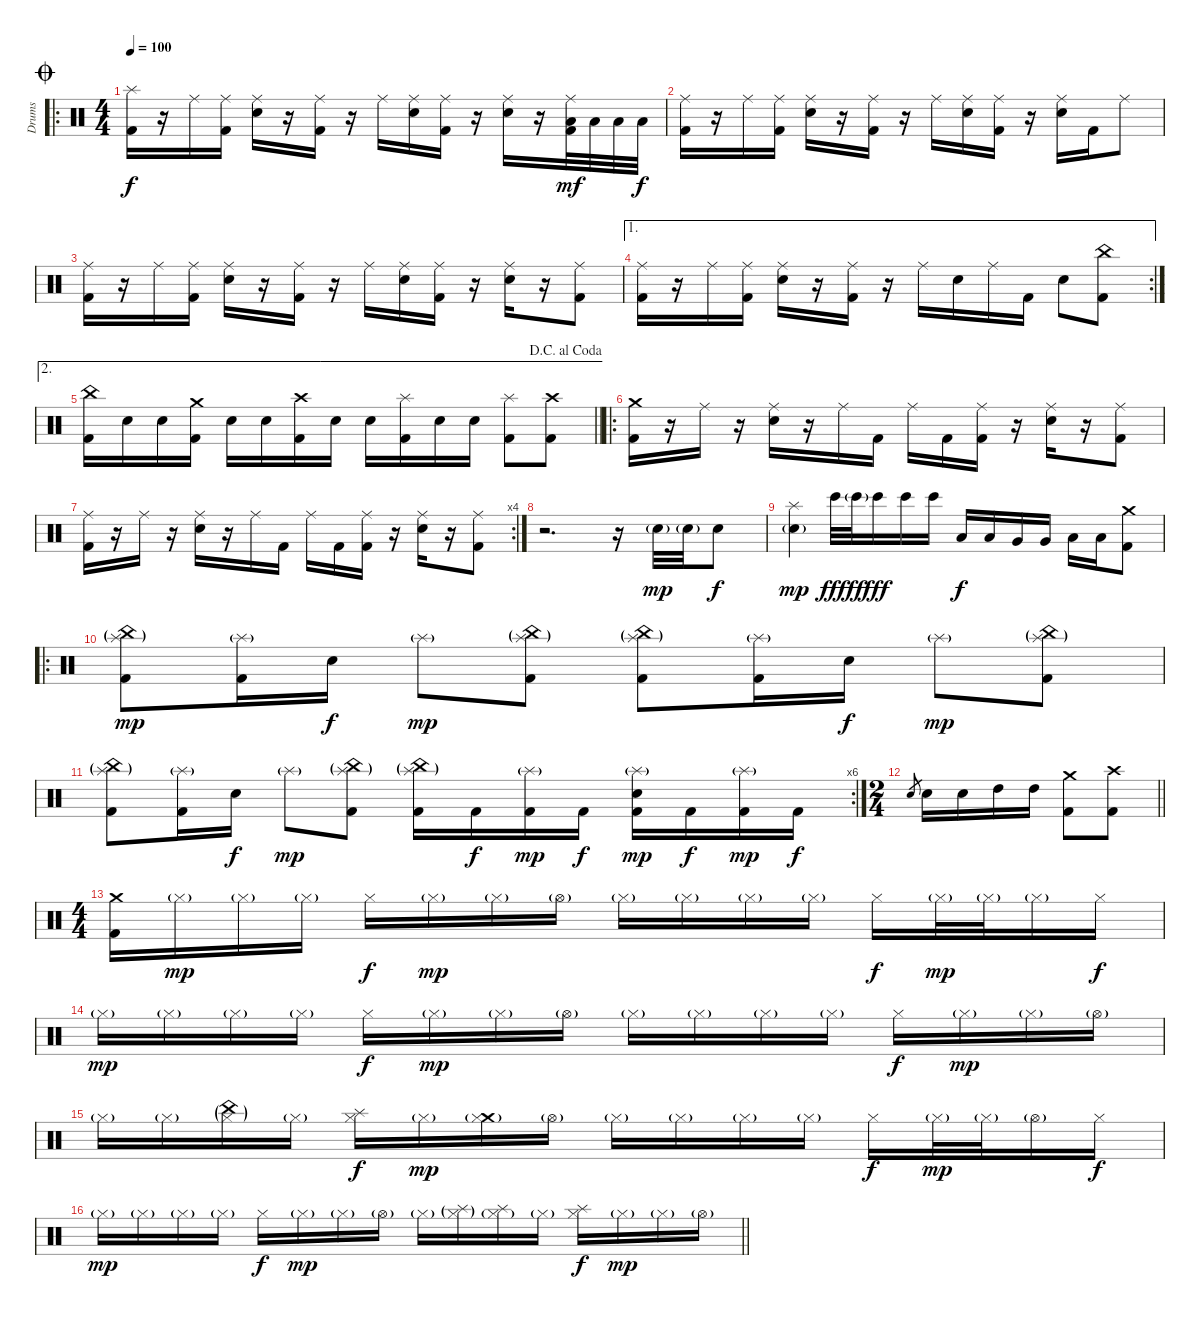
\track ("Drums" "Drums") {instrument percussion}
\staff {score}
\articulation defaults
\ro
\ts (4 4)
\jump coda
\tempo 100
\clef neutral
\ks c
("Splash (hit)" "Kick (hit) 2").16{dy f} r.16 "Ride (middle)".16 ("Ride (middle)" "Kick (hit) 2").16 ("Ride (middle)" "Electric Snare (hit)").16 r.16 ("Ride (middle)" "Kick (hit) 2").16 r.16 "Ride (middle)".16 ("Ride (middle)" "Electric Snare (hit)").16 ("Ride (middle)" "Kick (hit) 2").16 r.16 ("Ride (middle)" "Electric Snare (hit)").16 r.16 ("Ride (middle)" "Low Floor Tom (hit)" "Kick (hit) 2").32{dy mf} "Low Floor Tom (hit)".32 "Low Floor Tom (hit)".32 "Low Floor Tom (hit)".32{dy f} |
("Ride (middle)" "Kick (hit) 2").16 r.16 "Ride (middle)".16 ("Ride (middle)" "Kick (hit) 2").16 ("Ride (middle)" "Electric Snare (hit)").16 r.16 ("Ride (middle)" "Kick (hit) 2").16 r.16 "Ride (middle)".16 ("Ride (middle)" "Electric Snare (hit)").16 ("Ride (middle)" "Kick (hit) 2").16 r.16 ("Ride (middle)" "Electric Snare (hit)").16 "Kick (hit) 2".16 "Ride (middle)".8 |
("Ride (middle)" "Kick (hit) 2").16 r.16 "Ride (middle)".16 ("Ride (middle)" "Kick (hit) 2").16 ("Ride (middle)" "Electric Snare (hit)").16 r.16 ("Ride (middle)" "Kick (hit) 2").16 r.16 "Ride (middle)".16 ("Ride (middle)" "Electric Snare (hit)").16 ("Ride (middle)" "Kick (hit) 2").16 r.16 ("Ride (middle)" "Electric Snare (hit)").16 r.16 ("Ride (middle)" "Kick (hit) 2").8 |
\ae 1
\rc 2
("Ride (middle)" "Kick (hit) 2").16 r.16 "Ride (middle)".16 ("Ride (middle)" "Kick (hit) 2").16 ("Ride (middle)" "Electric Snare (hit)").16 r.16 ("Ride (middle)" "Kick (hit) 2").16 r.16 "Ride (middle)".16 "Electric Snare (hit)".16 "Ride (middle)".16 "Kick (hit) 2".16 "Electric Snare (hit)".8 ("China (hit)" "Kick (hit) 2").8 |
\ae 2
\jump dacapoalcoda
\barLineRight lightlight
("China (hit)" "Kick (hit) 2").16 "Electric Snare (hit)".16 "Electric Snare (hit)".16 ("Crash medium (hit)" "Kick (hit) 2").16 "Electric Snare (hit)".16 "Electric Snare (hit)".16 ("Crash high (hit)" "Kick (hit) 2").16 "Electric Snare (hit)".16 "Electric Snare (hit)".16 ("Splash (hit)" "Kick (hit) 2").16 "Electric Snare (hit)".16 "Electric Snare (hit)".16 ("Splash (hit)" "Kick (hit) 2").8 ("Crash high (hit)" "Kick (hit) 2").8 |
\ro
("Crash medium (hit)" "Kick (hit) 2").16 r.16 "Ride (middle)".16 r.16 ("Ride (middle)" "Electric Snare (hit)").16 r.16 "Ride (middle)".16 "Kick (hit) 2".16 "Ride (middle)".16 "Kick (hit) 2".16 ("Ride (middle)" "Kick (hit) 2").16 r.16 ("Ride (middle)" "Electric Snare (hit)").16 r.16 ("Ride (middle)" "Kick (hit) 2").8 |
\rc 4
("Ride (middle)" "Kick (hit) 2").16 r.16 "Ride (middle)".16 r.16 ("Ride (middle)" "Electric Snare (hit)").16 r.16 "Ride (middle)".16 "Kick (hit) 2".16 "Ride (middle)".16 "Kick (hit) 2".16 ("Ride (middle)" "Kick (hit) 2").16 r.16 ("Ride (middle)" "Electric Snare (hit)").16 r.16 ("Ride (middle)" "Kick (hit) 2").8 |
r.2{d} r.16 "Electric Snare (hit)"{g}.32{dy mp} "Electric Snare (hit)"{g}.32 "Electric Snare (hit)".8{dy f} |
("Splash (hit)" "Electric Snare (hit)"{g}).4{dy mp} "Bongo High (hit)".32{dy fff} "Bongo High (hit)"{g}.32{dy ff} "Bongo High (hit)".16{dy fff} "Bongo High (hit)".16 "Bongo High (hit)".16 "Low Tom (hit)".16{dy f} "Low Tom (hit)".16 "Very Low Tom (hit)".16 "Very Low Tom (hit)".16 "Low Floor Tom (hit)".16 "Low Floor Tom (hit)".16 ("Crash medium (hit)" "Kick (hit) 2").8 |
\ro
("Splash (hit)"{g} "China (hit)"{g} "Kick (hit) 2").8{dy mp} ("Splash (hit)"{g} "Kick (hit) 2").16 "Electric Snare (hit)".16{dy f} "Splash (hit)"{g}.8{dy mp} ("Splash (hit)"{g} "China (hit)"{g} "Kick (hit) 2").8 ("Splash (hit)"{g} "China (hit)"{g} "Kick (hit) 2").8 ("Splash (hit)"{g} "Kick (hit) 2").16 "Electric Snare (hit)".16{dy f} "Splash (hit)"{g}.8{dy mp} ("Splash (hit)"{g} "China (hit)"{g} "Kick (hit) 2").8 |
\rc 6
("Splash (hit)"{g} "China (hit)"{g} "Kick (hit) 2").8 ("Splash (hit)"{g} "Kick (hit) 2").16 "Electric Snare (hit)".16{dy f} "Splash (hit)"{g}.8{dy mp} ("Splash (hit)"{g} "China (hit)"{g} "Kick (hit) 2").8 ("Splash (hit)"{g} "China (hit)"{g} "Kick (hit) 2").16 "Kick (hit) 2".16{dy f} ("Splash (hit)"{g} "Kick (hit) 2").16{dy mp} "Kick (hit) 2".16{dy f} ("Splash (hit)"{g} "Electric Snare (hit)" "Kick (hit) 2").16{dy mp} "Kick (hit) 2".16{dy f} ("Splash (hit)"{g} "Kick (hit) 2").16{dy mp} "Kick (hit) 2".16{dy f} |
\ts (2 4)
\barLineRight lightlight "Electric Snare (hit)".8{gr} "Electric Snare (hit)".16 "Electric Snare (hit)".16 "High Tom (hit)".16 "High Tom (hit)".16
("Crash medium (hit)" "Kick (hit) 2").8 ("Crash high (hit)" "Kick (hit) 2").8 |
\ts (4 4)
("Crash medium (hit)" "Kick (hit) 2").16 "Hi-Hat (closed)"{g}.16{dy mp} "Hi-Hat (closed)"{g}.16 "Hi-Hat (closed)"{g}.16 "Hi-Hat (closed)".16{dy f} "Hi-Hat (closed)"{g}.16{dy mp} "Hi-Hat (closed)"{g}.16 "Hi-Hat (open)"{g}.16 "Hi-Hat (closed)"{g}.16 "Hi-Hat (closed)"{g}.16 "Hi-Hat (closed)"{g}.16 "Hi-Hat (closed)"{g}.16 "Hi-Hat (closed)".16{dy f} "Hi-Hat (closed)"{g}.32{dy mp} "Hi-Hat (closed)"{g}.32 "Hi-Hat (closed)"{g}.16 "Hi-Hat (closed)".16{dy f} |
"Hi-Hat (closed)"{g}.16{dy mp} "Hi-Hat (closed)"{g}.16 "Hi-Hat (closed)"{g}.16 "Hi-Hat (closed)"{g}.16 "Hi-Hat (closed)".16{dy f} "Hi-Hat (closed)"{g}.16{dy mp} "Hi-Hat (closed)"{g}.16 "Hi-Hat (open)"{g}.16 "Hi-Hat (closed)"{g}.16 "Hi-Hat (closed)"{g}.16 "Hi-Hat (closed)"{g}.16 "Hi-Hat (closed)"{g}.16 "Hi-Hat (closed)".16{dy f} "Hi-Hat (closed)"{g}.16{dy mp} "Hi-Hat (closed)"{g}.16 "Hi-Hat (open)"{g}.16 |
"Hi-Hat (closed)"{g}.16 "Hi-Hat (closed)"{g}.16 ("China (hit)"{g} "Hi-Hat (closed)"{g}).16 "Hi-Hat (closed)"{g}.16 ("Splash (hit)" "Hi-Hat (closed)").16{dy f} "Hi-Hat (closed)"{g}.16{dy mp} ("Crash medium (hit)"{g} "Hi-Hat (closed)"{g}).16 "Hi-Hat (open)"{g}.16 "Hi-Hat (closed)"{g}.16 "Hi-Hat (closed)"{g}.16 "Hi-Hat (closed)"{g}.16 "Hi-Hat (closed)"{g}.16 "Hi-Hat (closed)".16{dy f} "Hi-Hat (closed)"{g}.32{dy mp} "Hi-Hat (closed)"{g}.32 "Hi-Hat (open)"{g}.16 "Hi-Hat (closed)".16{dy f} |
\barLineRight lightlight "Hi-Hat (closed)"{g}.16{dy mp} "Hi-Hat (closed)"{g}.16 "Hi-Hat (closed)"{g}.16 "Hi-Hat (closed)"{g}.16 "Hi-Hat (closed)".16{dy f} "Hi-Hat (closed)"{g}.16{dy mp} "Hi-Hat (closed)"{g}.16 "Hi-Hat (open)"{g}.16 "Hi-Hat (closed)"{g}.16
("Splash (hit)"{g} "Hi-Hat (closed)"{g}).16 ("Splash (hit)" "Hi-Hat (closed)"{g}).16 "Hi-Hat (closed)"{g}.16 ("Splash (hit)" "Hi-Hat (closed)").16{dy f} "Hi-Hat (closed)"{g}.16{dy mp} "Hi-Hat (closed)"{g}.16 "Hi-Hat (open)"{g}.16
